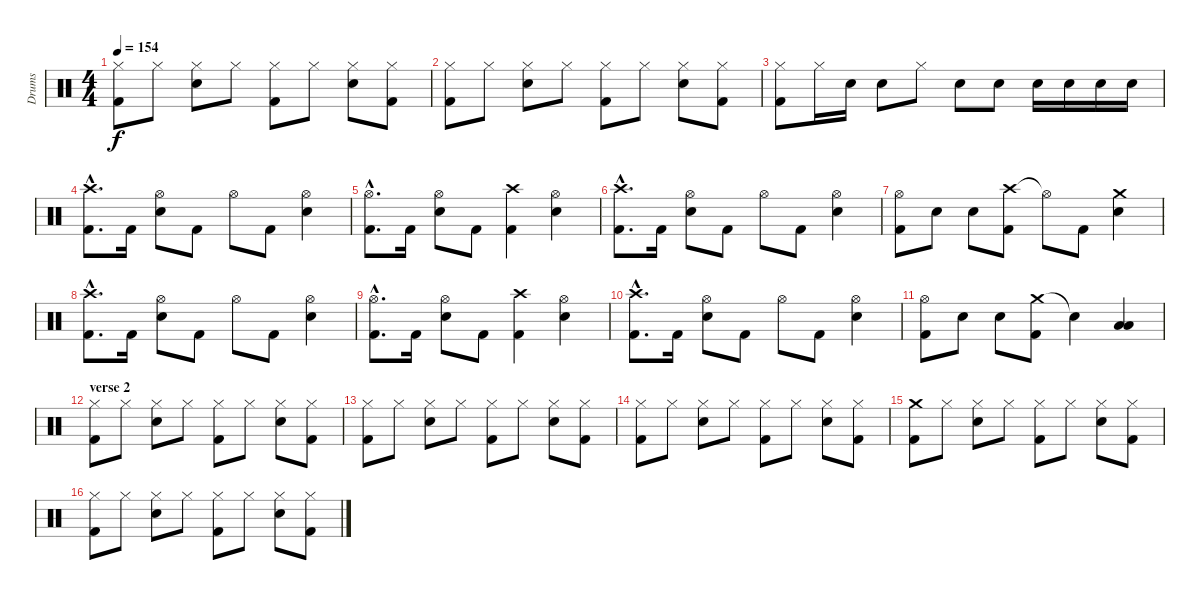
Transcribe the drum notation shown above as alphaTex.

\track ("Drums" "Drums") {instrument percussion}
\staff {score}
\articulation defaults
\ts (4 4)
\tempo 154
\clef neutral
\ks c
("Hi-Hat (closed)" "Kick (hit) 2").8{dy f} "Hi-Hat (closed)".8 ("Hi-Hat (closed)" "Electric Snare (hit)").8 "Hi-Hat (closed)".8 ("Hi-Hat (closed)" "Kick (hit) 2").8 "Hi-Hat (closed)".8 ("Hi-Hat (closed)" "Electric Snare (hit)").8 ("Hi-Hat (closed)" "Kick (hit) 2").8 |
("Hi-Hat (closed)" "Kick (hit) 2").8 "Hi-Hat (closed)".8 ("Hi-Hat (closed)" "Electric Snare (hit)").8 "Hi-Hat (closed)".8 ("Hi-Hat (closed)" "Kick (hit) 2").8 "Hi-Hat (closed)".8 ("Hi-Hat (closed)" "Electric Snare (hit)").8 ("Hi-Hat (closed)" "Kick (hit) 2").8 |
("Hi-Hat (closed)" "Kick (hit) 2").8 "Hi-Hat (closed)".16 "Electric Snare (hit)".16 "Electric Snare (hit)".8 "Hi-Hat (closed)".8 "Electric Snare (hit)".8 "Electric Snare (hit)".8 "Electric Snare (hit)".16 "Electric Snare (hit)".16 "Electric Snare (hit)".16 "Electric Snare (hit)".16 |
("Crash high (hit)"{hac} "Kick (hit) 2"{hac}).8{d} "Kick (hit) 2".16 ("Hi-Hat (open)" "Electric Snare (hit)").8 "Kick (hit) 2".8 "Hi-Hat (open)".8 "Kick (hit) 2".8 ("Hi-Hat (open)" "Electric Snare (hit)").4 |
("Hi-Hat (open)"{hac} "Kick (hit) 2"{hac}).8{d} "Kick (hit) 2".16 ("Hi-Hat (open)" "Electric Snare (hit)").8 "Kick (hit) 2".8 ("Crash high (hit)" "Kick (hit) 2").4 ("Hi-Hat (open)" "Electric Snare (hit)").4 |
("Crash high (hit)"{hac} "Kick (hit) 2"{hac}).8{d} "Kick (hit) 2".16 ("Hi-Hat (open)" "Electric Snare (hit)").8 "Kick (hit) 2".8 "Hi-Hat (open)".8 "Kick (hit) 2".8 ("Hi-Hat (open)" "Electric Snare (hit)").4 |
("Hi-Hat (open)" "Kick (hit) 2").8 "Electric Snare (hit)".8 "Electric Snare (hit)".8 ("Crash high (hit)" "Kick (hit) 2").8 "Hi-Hat (open)"{t}.8 "Kick (hit) 2".8 ("Crash medium (hit)" "Electric Snare (hit)").4 |
("Crash high (hit)"{hac} "Kick (hit) 2"{hac}).8{d} "Kick (hit) 2".16 ("Hi-Hat (open)" "Electric Snare (hit)").8 "Kick (hit) 2".8 "Hi-Hat (open)".8 "Kick (hit) 2".8 ("Hi-Hat (open)" "Electric Snare (hit)").4 |
("Hi-Hat (open)"{hac} "Kick (hit) 2"{hac}).8{d} "Kick (hit) 2".16 ("Hi-Hat (open)" "Electric Snare (hit)").8 "Kick (hit) 2".8 ("Crash high (hit)" "Kick (hit) 2").4 ("Hi-Hat (open)" "Electric Snare (hit)").4 |
("Crash high (hit)"{hac} "Kick (hit) 2"{hac}).8{d} "Kick (hit) 2".16 ("Hi-Hat (open)" "Electric Snare (hit)").8 "Kick (hit) 2".8 "Hi-Hat (open)".8 "Kick (hit) 2".8 ("Hi-Hat (open)" "Electric Snare (hit)").4 |
("Hi-Hat (open)" "Kick (hit) 2").8 "Electric Snare (hit)".8 "Electric Snare (hit)".8 ("Crash medium (hit)" "Kick (hit) 2").8 "Snare (hit)"{t}.4 ("Low Floor Tom (hit)" "Low Floor Tom (hit)").4 |
\section ("" "verse 2")
("Hi-Hat (closed)" "Kick (hit) 2").8 "Hi-Hat (closed)".8 ("Hi-Hat (closed)" "Electric Snare (hit)").8 "Hi-Hat (closed)".8 ("Hi-Hat (closed)" "Kick (hit) 2").8 "Hi-Hat (closed)".8 ("Hi-Hat (closed)" "Electric Snare (hit)").8 ("Hi-Hat (closed)" "Kick (hit) 2").8 |
("Hi-Hat (closed)" "Kick (hit) 2").8 "Hi-Hat (closed)".8 ("Hi-Hat (closed)" "Electric Snare (hit)").8 "Hi-Hat (closed)".8 ("Hi-Hat (closed)" "Kick (hit) 2").8 "Hi-Hat (closed)".8 ("Hi-Hat (closed)" "Electric Snare (hit)").8 ("Hi-Hat (closed)" "Kick (hit) 2").8 |
("Hi-Hat (closed)" "Kick (hit) 2").8 "Hi-Hat (closed)".8 ("Hi-Hat (closed)" "Electric Snare (hit)").8 "Hi-Hat (closed)".8 ("Hi-Hat (closed)" "Kick (hit) 2").8 "Hi-Hat (closed)".8 ("Hi-Hat (closed)" "Electric Snare (hit)").8 ("Hi-Hat (closed)" "Kick (hit) 2").8 |
("Crash medium (hit)" "Kick (hit) 2").8 "Hi-Hat (closed)".8 ("Hi-Hat (closed)" "Electric Snare (hit)").8 "Hi-Hat (closed)".8 ("Hi-Hat (closed)" "Kick (hit) 2").8 "Hi-Hat (closed)".8 ("Hi-Hat (closed)" "Electric Snare (hit)").8 ("Hi-Hat (closed)" "Kick (hit) 2").8 |
("Hi-Hat (closed)" "Kick (hit) 2").8 "Hi-Hat (closed)".8 ("Hi-Hat (closed)" "Electric Snare (hit)").8 "Hi-Hat (closed)".8 ("Hi-Hat (closed)" "Kick (hit) 2").8 "Hi-Hat (closed)".8 ("Hi-Hat (closed)" "Electric Snare (hit)").8 ("Hi-Hat (closed)" "Kick (hit) 2").8
